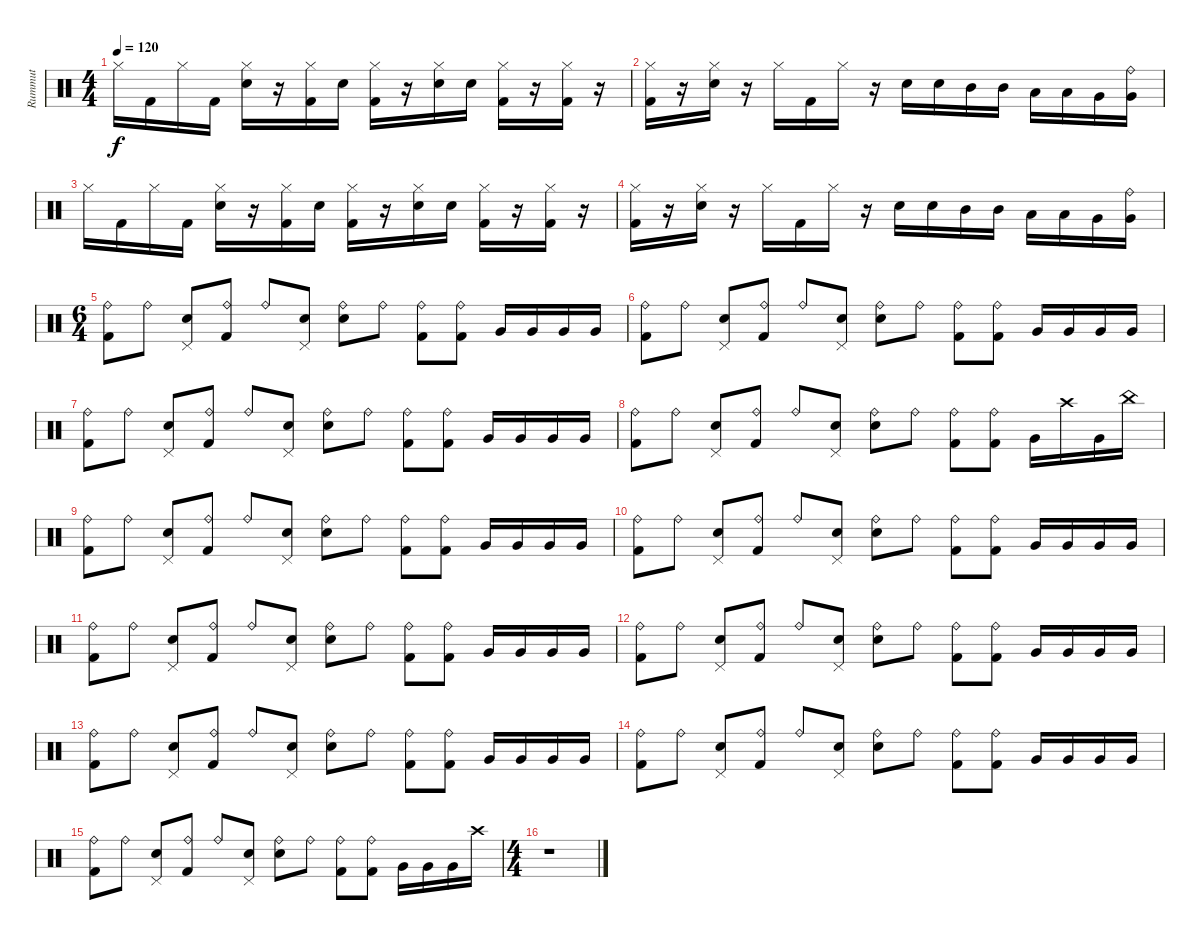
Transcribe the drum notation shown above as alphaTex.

\track ("Rummut" "Rummut") {instrument percussion}
\staff {score}
\articulation defaults
\ts (4 4)
\tempo 120
\clef neutral
\ks c "Hi-Hat (closed)".16{dy f} "Kick (hit) 2".16 "Hi-Hat (closed)".16 "Kick (hit) 2".16
("Hi-Hat (closed)" "Snare (hit) 2").16 r.16 ("Hi-Hat (closed)" "Kick (hit) 2").16 "Snare (hit) 2".16 ("Hi-Hat (closed)" "Kick (hit) 2").16 r.16 ("Hi-Hat (closed)" "Snare (hit) 2").16 "Snare (hit) 2".16 ("Hi-Hat (closed)" "Kick (hit) 2").16 r.16 ("Hi-Hat (closed)" "Kick (hit) 2").16 r.16 |
("Hi-Hat (closed)" "Kick (hit) 2").16 r.16 ("Hi-Hat (closed)" "Snare (hit) 2").16 r.16 "Hi-Hat (closed)".16 "Kick (hit) 2".16 "Hi-Hat (closed)".16 r.16 "Snare (hit) 2".16 "Snare (hit) 2".16 "Mid Tom (hit)".16 "Mid Tom (hit)".16 "Low Tom (hit)".16 "Low Tom (hit)".16 "Very Low Tom (hit)".16 ("Very Low Tom (hit)" "Ride (bell)").16 |
"Hi-Hat (closed)".16 "Kick (hit) 2".16 "Hi-Hat (closed)".16 "Kick (hit) 2".16 ("Hi-Hat (closed)" "Snare (hit) 2").16 r.16 ("Hi-Hat (closed)" "Kick (hit) 2").16 "Snare (hit) 2".16 ("Hi-Hat (closed)" "Kick (hit) 2").16 r.16 ("Hi-Hat (closed)" "Snare (hit) 2").16 "Snare (hit) 2".16 ("Hi-Hat (closed)" "Kick (hit) 2").16 r.16 ("Hi-Hat (closed)" "Kick (hit) 2").16 r.16 |
("Hi-Hat (closed)" "Kick (hit) 2").16 r.16 ("Hi-Hat (closed)" "Snare (hit) 2").16 r.16 "Hi-Hat (closed)".16 "Kick (hit) 2".16 "Hi-Hat (closed)".16 r.16 "Snare (hit) 2".16 "Snare (hit) 2".16 "Mid Tom (hit)".16 "Mid Tom (hit)".16 "Low Tom (hit)".16 "Low Tom (hit)".16 "Very Low Tom (hit)".16 ("Very Low Tom (hit)" "Ride (bell)").16 |
\ts (6 4)
("Ride (bell)" "Kick (hit) 2").8 "Ride (bell)".8 ("Pedal Hi-Hat (hit)" "Snare (hit) 2").8 ("Ride (bell)" "Kick (hit) 2").8 "Ride (bell)".8 ("Pedal Hi-Hat (hit)" "Snare (hit) 2").8 ("Ride (bell)" "Snare (hit) 2").8 "Ride (bell)".8 ("Ride (bell)" "Kick (hit) 2").8 ("Ride (bell)" "Kick (hit) 2").8 "Very Low Tom (hit)".16 "Very Low Tom (hit)".16 "Very Low Tom (hit)".16 "Very Low Tom (hit)".16 |
("Ride (bell)" "Kick (hit) 2").8 "Ride (bell)".8 ("Pedal Hi-Hat (hit)" "Snare (hit) 2").8 ("Ride (bell)" "Kick (hit) 2").8 "Ride (bell)".8 ("Pedal Hi-Hat (hit)" "Snare (hit) 2").8 ("Ride (bell)" "Snare (hit) 2").8 "Ride (bell)".8 ("Ride (bell)" "Kick (hit) 2").8 ("Ride (bell)" "Kick (hit) 2").8 "Very Low Tom (hit)".16 "Very Low Tom (hit)".16 "Very Low Tom (hit)".16 "Very Low Tom (hit)".16 |
("Ride (bell)" "Kick (hit) 2").8 "Ride (bell)".8 ("Pedal Hi-Hat (hit)" "Snare (hit) 2").8 ("Ride (bell)" "Kick (hit) 2").8 "Ride (bell)".8 ("Pedal Hi-Hat (hit)" "Snare (hit) 2").8 ("Ride (bell)" "Snare (hit) 2").8 "Ride (bell)".8 ("Ride (bell)" "Kick (hit) 2").8 ("Ride (bell)" "Kick (hit) 2").8 "Very Low Tom (hit)".16 "Very Low Tom (hit)".16 "Very Low Tom (hit)".16 "Very Low Tom (hit)".16 |
("Ride (bell)" "Kick (hit) 2").8 "Ride (bell)".8 ("Pedal Hi-Hat (hit)" "Snare (hit) 2").8 ("Ride (bell)" "Kick (hit) 2").8 "Ride (bell)".8 ("Pedal Hi-Hat (hit)" "Snare (hit) 2").8 ("Ride (bell)" "Snare (hit) 2").8 "Ride (bell)".8 ("Ride (bell)" "Kick (hit) 2").8 ("Ride (bell)" "Kick (hit) 2").8 "Very Low Tom (hit)".16 "Crash high (hit)".16 "Very Low Tom (hit)".16 "China (hit)".16 |
("Ride (bell)" "Kick (hit) 2").8 "Ride (bell)".8 ("Pedal Hi-Hat (hit)" "Snare (hit) 2").8 ("Ride (bell)" "Kick (hit) 2").8 "Ride (bell)".8 ("Pedal Hi-Hat (hit)" "Snare (hit) 2").8 ("Ride (bell)" "Snare (hit) 2").8 "Ride (bell)".8 ("Ride (bell)" "Kick (hit) 2").8 ("Ride (bell)" "Kick (hit) 2").8 "Very Low Tom (hit)".16 "Very Low Tom (hit)".16 "Very Low Tom (hit)".16 "Very Low Tom (hit)".16 |
("Ride (bell)" "Kick (hit) 2").8 "Ride (bell)".8 ("Pedal Hi-Hat (hit)" "Snare (hit) 2").8 ("Ride (bell)" "Kick (hit) 2").8 "Ride (bell)".8 ("Pedal Hi-Hat (hit)" "Snare (hit) 2").8 ("Ride (bell)" "Snare (hit) 2").8 "Ride (bell)".8 ("Ride (bell)" "Kick (hit) 2").8 ("Ride (bell)" "Kick (hit) 2").8 "Very Low Tom (hit)".16 "Very Low Tom (hit)".16 "Very Low Tom (hit)".16 "Very Low Tom (hit)".16 |
("Ride (bell)" "Kick (hit) 2").8 "Ride (bell)".8 ("Pedal Hi-Hat (hit)" "Snare (hit) 2").8 ("Ride (bell)" "Kick (hit) 2").8 "Ride (bell)".8 ("Pedal Hi-Hat (hit)" "Snare (hit) 2").8 ("Ride (bell)" "Snare (hit) 2").8 "Ride (bell)".8 ("Ride (bell)" "Kick (hit) 2").8 ("Ride (bell)" "Kick (hit) 2").8 "Very Low Tom (hit)".16 "Very Low Tom (hit)".16 "Very Low Tom (hit)".16 "Very Low Tom (hit)".16 |
("Ride (bell)" "Kick (hit) 2").8 "Ride (bell)".8 ("Pedal Hi-Hat (hit)" "Snare (hit) 2").8 ("Ride (bell)" "Kick (hit) 2").8 "Ride (bell)".8 ("Pedal Hi-Hat (hit)" "Snare (hit) 2").8 ("Ride (bell)" "Snare (hit) 2").8 "Ride (bell)".8 ("Ride (bell)" "Kick (hit) 2").8 ("Ride (bell)" "Kick (hit) 2").8 "Very Low Tom (hit)".16 "Very Low Tom (hit)".16 "Very Low Tom (hit)".16 "Very Low Tom (hit)".16 |
("Ride (bell)" "Kick (hit) 2").8 "Ride (bell)".8 ("Pedal Hi-Hat (hit)" "Snare (hit) 2").8 ("Ride (bell)" "Kick (hit) 2").8 "Ride (bell)".8 ("Pedal Hi-Hat (hit)" "Snare (hit) 2").8 ("Ride (bell)" "Snare (hit) 2").8 "Ride (bell)".8 ("Ride (bell)" "Kick (hit) 2").8 ("Ride (bell)" "Kick (hit) 2").8 "Very Low Tom (hit)".16 "Very Low Tom (hit)".16 "Very Low Tom (hit)".16 "Very Low Tom (hit)".16 |
("Ride (bell)" "Kick (hit) 2").8 "Ride (bell)".8 ("Pedal Hi-Hat (hit)" "Snare (hit) 2").8 ("Ride (bell)" "Kick (hit) 2").8 "Ride (bell)".8 ("Pedal Hi-Hat (hit)" "Snare (hit) 2").8 ("Ride (bell)" "Snare (hit) 2").8 "Ride (bell)".8 ("Ride (bell)" "Kick (hit) 2").8 ("Ride (bell)" "Kick (hit) 2").8 "Very Low Tom (hit)".16 "Very Low Tom (hit)".16 "Very Low Tom (hit)".16 "Very Low Tom (hit)".16 |
("Ride (bell)" "Kick (hit) 2").8 "Ride (bell)".8 ("Pedal Hi-Hat (hit)" "Snare (hit) 2").8 ("Ride (bell)" "Kick (hit) 2").8 "Ride (bell)".8 ("Pedal Hi-Hat (hit)" "Snare (hit) 2").8 ("Ride (bell)" "Snare (hit) 2").8 "Ride (bell)".8 ("Ride (bell)" "Kick (hit) 2").8 ("Ride (bell)" "Kick (hit) 2").8 "Very Low Tom (hit)".16 "Very Low Tom (hit)".16 "Very Low Tom (hit)".16 "Crash high (hit)".16 |
\ts (4 4)
r.1
